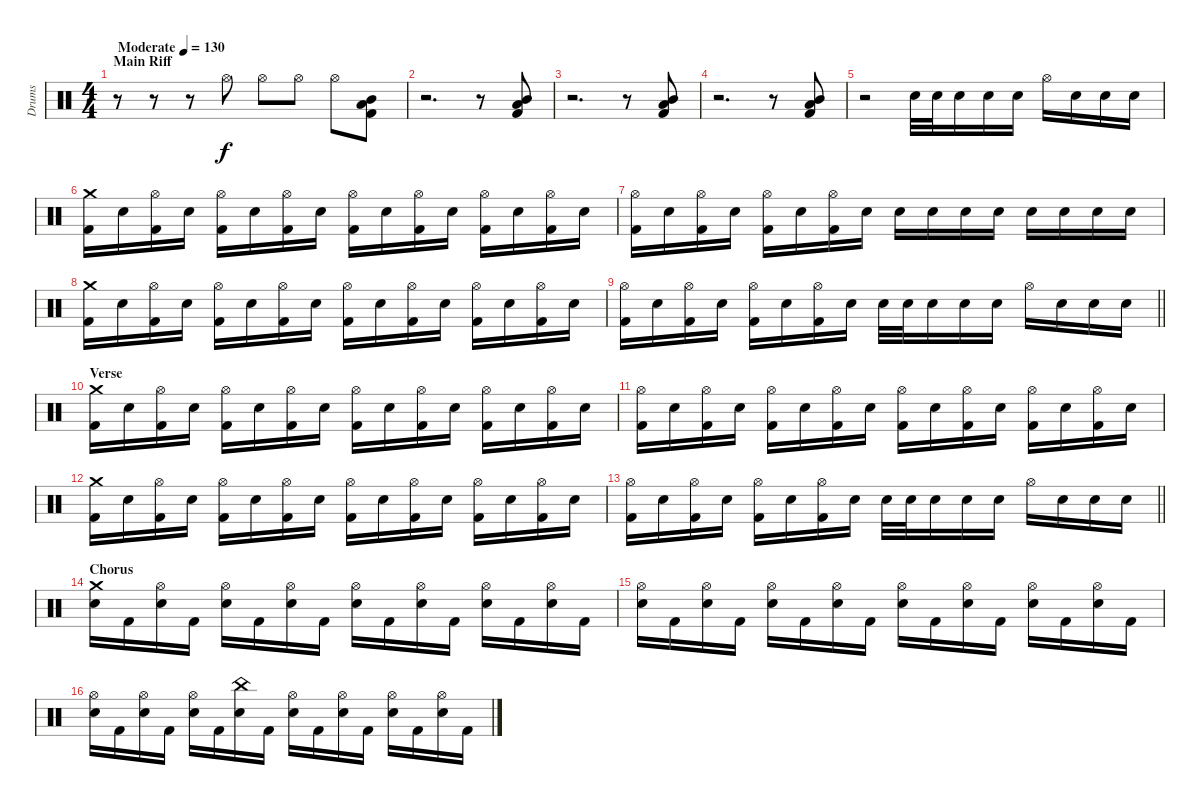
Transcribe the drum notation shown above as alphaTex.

\track ("Drums" "Drums") {instrument percussion}
\staff {score}
\articulation defaults
\ts (4 4)
\section ("" "Main Riff")
\tempo (130 "Moderate")
\clef neutral
\ks c
r.8{dy f} r.8 r.8 "Hi-Hat (open)".8 "Hi-Hat (open)".8 "Hi-Hat (open)".8 "Hi-Hat (open)".8 ("Mid Tom (hit)" "Low Tom (hit)" "Kick (hit) 2").8 |
r.2{d} r.8 ("Mid Tom (hit)" "Low Tom (hit)" "Kick (hit) 2").8 |
r.2{d} r.8 ("Mid Tom (hit)" "Low Tom (hit)" "Kick (hit) 2").8 |
r.2{d} r.8 ("Mid Tom (hit)" "Low Tom (hit)" "Kick (hit) 2").8 |
r.2 "Electric Snare (hit)".32 "Electric Snare (hit)".32 "Electric Snare (hit)".16 "Electric Snare (hit)".16 "Electric Snare (hit)".16 "Hi-Hat (open)".16 "Electric Snare (hit)".16 "Electric Snare (hit)".16 "Electric Snare (hit)".16 |
("Crash medium (hit)" "Kick (hit) 2").16 "Electric Snare (hit)".16 ("Hi-Hat (open)" "Kick (hit) 2").16 "Electric Snare (hit)".16 ("Hi-Hat (open)" "Kick (hit) 2").16 "Electric Snare (hit)".16 ("Hi-Hat (open)" "Kick (hit) 2").16 "Electric Snare (hit)".16 ("Hi-Hat (open)" "Kick (hit) 2").16 "Electric Snare (hit)".16 ("Hi-Hat (open)" "Kick (hit) 2").16 "Electric Snare (hit)".16 ("Hi-Hat (open)" "Kick (hit) 2").16 "Electric Snare (hit)".16 ("Hi-Hat (open)" "Kick (hit) 2").16 "Electric Snare (hit)".16 |
("Hi-Hat (open)" "Kick (hit) 2").16 "Electric Snare (hit)".16 ("Hi-Hat (open)" "Kick (hit) 2").16 "Electric Snare (hit)".16 ("Hi-Hat (open)" "Kick (hit) 2").16 "Electric Snare (hit)".16 ("Hi-Hat (open)" "Kick (hit) 2").16 "Electric Snare (hit)".16 "Electric Snare (hit)".16 "Electric Snare (hit)".16 "Electric Snare (hit)".16 "Electric Snare (hit)".16 "Electric Snare (hit)".16 "Electric Snare (hit)".16 "Electric Snare (hit)".16 "Electric Snare (hit)".16 |
("Crash medium (hit)" "Kick (hit) 2").16 "Electric Snare (hit)".16 ("Hi-Hat (open)" "Kick (hit) 2").16 "Electric Snare (hit)".16 ("Hi-Hat (open)" "Kick (hit) 2").16 "Electric Snare (hit)".16 ("Hi-Hat (open)" "Kick (hit) 2").16 "Electric Snare (hit)".16 ("Hi-Hat (open)" "Kick (hit) 2").16 "Electric Snare (hit)".16 ("Hi-Hat (open)" "Kick (hit) 2").16 "Electric Snare (hit)".16 ("Hi-Hat (open)" "Kick (hit) 2").16 "Electric Snare (hit)".16 ("Hi-Hat (open)" "Kick (hit) 2").16 "Electric Snare (hit)".16 |
\barLineRight lightlight
("Hi-Hat (open)" "Kick (hit) 2").16 "Electric Snare (hit)".16 ("Hi-Hat (open)" "Kick (hit) 2").16 "Electric Snare (hit)".16 ("Hi-Hat (open)" "Kick (hit) 2").16 "Electric Snare (hit)".16 ("Hi-Hat (open)" "Kick (hit) 2").16 "Electric Snare (hit)".16 "Electric Snare (hit)".32 "Electric Snare (hit)".32 "Electric Snare (hit)".16 "Electric Snare (hit)".16 "Electric Snare (hit)".16 "Hi-Hat (open)".16 "Electric Snare (hit)".16 "Electric Snare (hit)".16 "Electric Snare (hit)".16 |
\section ("" "Verse")
("Crash medium (hit)" "Kick (hit) 2").16 "Electric Snare (hit)".16 ("Hi-Hat (open)" "Kick (hit) 2").16 "Electric Snare (hit)".16 ("Hi-Hat (open)" "Kick (hit) 2").16 "Electric Snare (hit)".16 ("Hi-Hat (open)" "Kick (hit) 2").16 "Electric Snare (hit)".16 ("Hi-Hat (open)" "Kick (hit) 2").16 "Electric Snare (hit)".16 ("Hi-Hat (open)" "Kick (hit) 2").16 "Electric Snare (hit)".16 ("Hi-Hat (open)" "Kick (hit) 2").16 "Electric Snare (hit)".16 ("Hi-Hat (open)" "Kick (hit) 2").16 "Electric Snare (hit)".16 |
("Hi-Hat (open)" "Kick (hit) 2").16 "Electric Snare (hit)".16 ("Hi-Hat (open)" "Kick (hit) 2").16 "Electric Snare (hit)".16 ("Hi-Hat (open)" "Kick (hit) 2").16 "Electric Snare (hit)".16 ("Hi-Hat (open)" "Kick (hit) 2").16 "Electric Snare (hit)".16 ("Hi-Hat (open)" "Kick (hit) 2").16 "Electric Snare (hit)".16 ("Hi-Hat (open)" "Kick (hit) 2").16 "Electric Snare (hit)".16 ("Hi-Hat (open)" "Kick (hit) 2").16 "Electric Snare (hit)".16 ("Hi-Hat (open)" "Kick (hit) 2").16 "Electric Snare (hit)".16 |
("Crash medium (hit)" "Kick (hit) 2").16 "Electric Snare (hit)".16 ("Hi-Hat (open)" "Kick (hit) 2").16 "Electric Snare (hit)".16 ("Hi-Hat (open)" "Kick (hit) 2").16 "Electric Snare (hit)".16 ("Hi-Hat (open)" "Kick (hit) 2").16 "Electric Snare (hit)".16 ("Hi-Hat (open)" "Kick (hit) 2").16 "Electric Snare (hit)".16 ("Hi-Hat (open)" "Kick (hit) 2").16 "Electric Snare (hit)".16 ("Hi-Hat (open)" "Kick (hit) 2").16 "Electric Snare (hit)".16 ("Hi-Hat (open)" "Kick (hit) 2").16 "Electric Snare (hit)".16 |
\barLineRight lightlight
("Hi-Hat (open)" "Kick (hit) 2").16 "Electric Snare (hit)".16 ("Hi-Hat (open)" "Kick (hit) 2").16 "Electric Snare (hit)".16 ("Hi-Hat (open)" "Kick (hit) 2").16 "Electric Snare (hit)".16 ("Hi-Hat (open)" "Kick (hit) 2").16 "Electric Snare (hit)".16 "Electric Snare (hit)".32 "Electric Snare (hit)".32 "Electric Snare (hit)".16 "Electric Snare (hit)".16 "Electric Snare (hit)".16 "Hi-Hat (open)".16 "Electric Snare (hit)".16 "Electric Snare (hit)".16 "Electric Snare (hit)".16 |
\section ("" "Chorus")
("Crash medium (hit)" "Electric Snare (hit)").16 "Kick (hit) 2".16 ("Hi-Hat (open)" "Electric Snare (hit)").16 "Kick (hit) 2".16 ("Hi-Hat (open)" "Electric Snare (hit)").16 "Kick (hit) 2".16 ("Hi-Hat (open)" "Electric Snare (hit)").16 "Kick (hit) 2".16 ("Hi-Hat (open)" "Electric Snare (hit)").16 "Kick (hit) 2".16 ("Hi-Hat (open)" "Electric Snare (hit)").16 "Kick (hit) 2".16 ("Hi-Hat (open)" "Electric Snare (hit)").16 "Kick (hit) 2".16 ("Hi-Hat (open)" "Electric Snare (hit)").16 "Kick (hit) 2".16 |
("Hi-Hat (open)" "Electric Snare (hit)").16 "Kick (hit) 2".16 ("Hi-Hat (open)" "Electric Snare (hit)").16 "Kick (hit) 2".16 ("Hi-Hat (open)" "Electric Snare (hit)").16 "Kick (hit) 2".16 ("Hi-Hat (open)" "Electric Snare (hit)").16 "Kick (hit) 2".16 ("Hi-Hat (open)" "Electric Snare (hit)").16 "Kick (hit) 2".16 ("Hi-Hat (open)" "Electric Snare (hit)").16 "Kick (hit) 2".16 ("Hi-Hat (open)" "Electric Snare (hit)").16 "Kick (hit) 2".16 ("Hi-Hat (open)" "Electric Snare (hit)").16 "Kick (hit) 2".16 |
("Hi-Hat (open)" "Electric Snare (hit)").16 "Kick (hit) 2".16 ("Hi-Hat (open)" "Electric Snare (hit)").16 "Kick (hit) 2".16 ("Hi-Hat (open)" "Electric Snare (hit)").16 "Kick (hit) 2".16 ("China (hit)" "Electric Snare (hit)").16 "Kick (hit) 2".16 ("Hi-Hat (open)" "Electric Snare (hit)").16 "Kick (hit) 2".16 ("Hi-Hat (open)" "Electric Snare (hit)").16 "Kick (hit) 2".16 ("Hi-Hat (open)" "Electric Snare (hit)").16 "Kick (hit) 2".16 ("Hi-Hat (open)" "Electric Snare (hit)").16 "Kick (hit) 2".16
